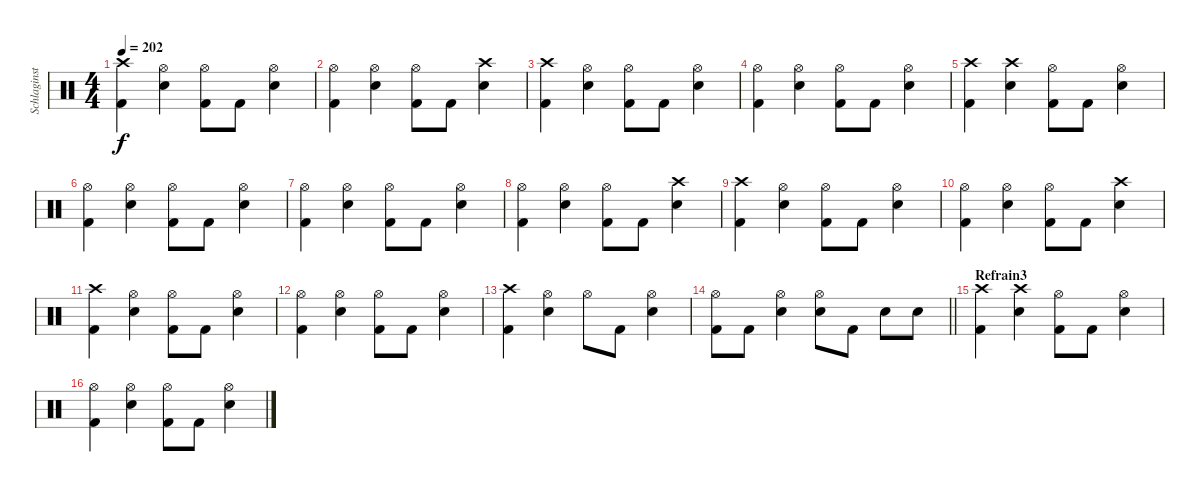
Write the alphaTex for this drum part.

\track ("Schlaginstrumente - Auswahl" "Schlaginst") {instrument percussion bank 1}
\staff {score}
\articulation defaults
\ts (4 4)
\tempo 202
\clef neutral
\ks c
("Crash high (hit)" "Kick (hit) 2").4{dy f} ("Hi-Hat (open)" "Snare (hit) 2").4 ("Hi-Hat (open)" "Kick (hit) 2").8 "Kick (hit) 2".8 ("Hi-Hat (open)" "Snare (hit) 2").4 |
("Hi-Hat (open)" "Kick (hit) 2").4 ("Hi-Hat (open)" "Snare (hit) 2").4 ("Hi-Hat (open)" "Kick (hit) 2").8 "Kick (hit) 2".8 ("Crash high (hit)" "Snare (hit) 2").4 |
("Crash high (hit)" "Kick (hit) 2").4 ("Hi-Hat (open)" "Snare (hit) 2").4 ("Hi-Hat (open)" "Kick (hit) 2").8 "Kick (hit) 2".8 ("Hi-Hat (open)" "Snare (hit) 2").4 |
("Hi-Hat (open)" "Kick (hit) 2").4 ("Hi-Hat (open)" "Snare (hit) 2").4 ("Hi-Hat (open)" "Kick (hit) 2").8 "Kick (hit) 2".8 ("Hi-Hat (open)" "Snare (hit) 2").4 |
("Crash high (hit)" "Kick (hit) 2").4 ("Crash high (hit)" "Snare (hit) 2").4 ("Hi-Hat (open)" "Kick (hit) 2").8 "Kick (hit) 2".8 ("Hi-Hat (open)" "Snare (hit) 2").4 |
("Hi-Hat (open)" "Kick (hit) 2").4 ("Hi-Hat (open)" "Snare (hit) 2").4 ("Hi-Hat (open)" "Kick (hit) 2").8 "Kick (hit) 2".8 ("Hi-Hat (open)" "Snare (hit) 2").4 |
("Hi-Hat (open)" "Kick (hit) 2").4 ("Hi-Hat (open)" "Snare (hit) 2").4 ("Hi-Hat (open)" "Kick (hit) 2").8 "Kick (hit) 2".8 ("Hi-Hat (open)" "Snare (hit) 2").4 |
("Hi-Hat (open)" "Kick (hit) 2").4 ("Hi-Hat (open)" "Snare (hit) 2").4 ("Hi-Hat (open)" "Kick (hit) 2").8 "Kick (hit) 2".8 ("Crash high (hit)" "Snare (hit) 2").4 |
("Crash high (hit)" "Kick (hit) 2").4 ("Hi-Hat (open)" "Snare (hit) 2").4 ("Hi-Hat (open)" "Kick (hit) 2").8 "Kick (hit) 2".8 ("Hi-Hat (open)" "Snare (hit) 2").4 |
("Hi-Hat (open)" "Kick (hit) 2").4 ("Hi-Hat (open)" "Snare (hit) 2").4 ("Hi-Hat (open)" "Kick (hit) 2").8 "Kick (hit) 2".8 ("Crash high (hit)" "Snare (hit) 2").4 |
("Crash high (hit)" "Kick (hit) 2").4 ("Hi-Hat (open)" "Snare (hit) 2").4 ("Hi-Hat (open)" "Kick (hit) 2").8 "Kick (hit) 2".8 ("Hi-Hat (open)" "Snare (hit) 2").4 |
("Hi-Hat (open)" "Kick (hit) 2").4 ("Hi-Hat (open)" "Snare (hit) 2").4 ("Hi-Hat (open)" "Kick (hit) 2").8 "Kick (hit) 2".8 ("Hi-Hat (open)" "Snare (hit) 2").4 |
("Crash high (hit)" "Kick (hit) 2").4 ("Hi-Hat (open)" "Snare (hit) 2").4 "Hi-Hat (open)".8 "Kick (hit) 2".8 ("Hi-Hat (open)" "Snare (hit) 2").4 |
\barLineRight lightlight
("Hi-Hat (open)" "Kick (hit) 2").8 "Kick (hit) 2".8 ("Hi-Hat (open)" "Snare (hit) 2").4 ("Hi-Hat (open)" "Snare (hit) 2").8 "Kick (hit) 2".8 "Snare (hit) 2".8 "Snare (hit) 2".8 |
\section ("" "Refrain3")
("Crash high (hit)" "Kick (hit) 2").4 ("Crash high (hit)" "Snare (hit) 2").4 ("Hi-Hat (open)" "Kick (hit) 2").8 "Kick (hit) 2".8 ("Hi-Hat (open)" "Snare (hit) 2").4 |
("Hi-Hat (open)" "Kick (hit) 2").4 ("Hi-Hat (open)" "Snare (hit) 2").4 ("Hi-Hat (open)" "Kick (hit) 2").8 "Kick (hit) 2".8 ("Hi-Hat (open)" "Snare (hit) 2").4
